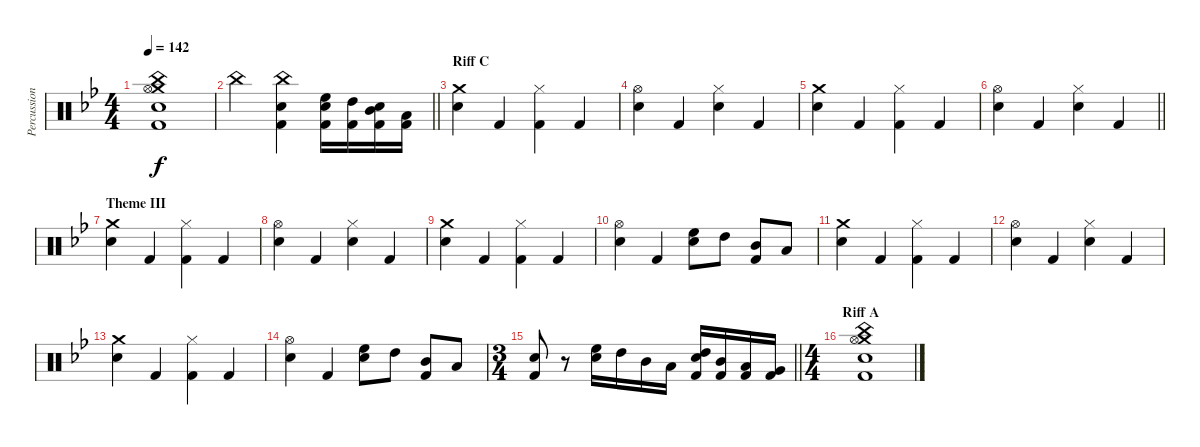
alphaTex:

\track ("Percussion" "Percussion") {instrument percussion}
\staff {score}
\articulation defaults
\ts (4 4)
\tempo 142
\clef neutral
\ks gminor
("Crash medium (hit)" "China (hit)" "Hi-Hat (open)" "Snare (hit) 2" "Kick (hit) 2").1{dy f} |
\barLineRight lightlight "China (hit)".2
("China (hit)" "Snare (hit) 2" "Kick (hit) 2").4 ("High Floor Tom (hit)" "Snare (hit) 2" "Kick (hit) 2").16 ("High Tom (hit)" "Kick (hit) 2").16 ("Mid Tom (hit)" "Snare (hit) 2" "Kick (hit) 2").16 ("Low Tom (hit)" "Kick (hit) 2").16 |
\section ("" "Riff C")
("Crash medium (hit)" "Snare (hit) 2").4 "Kick (hit) 2".4 ("Hi-Hat (closed)" "Kick (hit) 2").4 "Kick (hit) 2".4 |
("Hi-Hat (open)" "Snare (hit) 2").4 "Kick (hit) 2".4 ("Hi-Hat (closed)" "Snare (hit) 2").4 "Kick (hit) 2".4 |
("Crash medium (hit)" "Snare (hit) 2").4 "Kick (hit) 2".4 ("Hi-Hat (closed)" "Kick (hit) 2").4 "Kick (hit) 2".4 |
\barLineRight lightlight
("Hi-Hat (open)" "Snare (hit) 2").4 "Kick (hit) 2".4 ("Hi-Hat (closed)" "Snare (hit) 2").4 "Kick (hit) 2".4 |
\section ("" "Theme III")
("Crash medium (hit)" "Snare (hit) 2").4 "Kick (hit) 2".4 ("Hi-Hat (closed)" "Kick (hit) 2").4 "Kick (hit) 2".4 |
("Hi-Hat (open)" "Snare (hit) 2").4 "Kick (hit) 2".4 ("Hi-Hat (closed)" "Snare (hit) 2").4 "Kick (hit) 2".4 |
("Crash medium (hit)" "Snare (hit) 2").4 "Kick (hit) 2".4 ("Hi-Hat (closed)" "Kick (hit) 2").4 "Kick (hit) 2".4 |
("Hi-Hat (open)" "Snare (hit) 2").4 "Kick (hit) 2".4 ("High Floor Tom (hit)" "Snare (hit) 2").8 "High Tom (hit)".8 ("Mid Tom (hit)" "Kick (hit) 2").8 "Low Tom (hit)".8 |
("Crash medium (hit)" "Snare (hit) 2").4 "Kick (hit) 2".4 ("Hi-Hat (closed)" "Kick (hit) 2").4 "Kick (hit) 2".4 |
("Hi-Hat (open)" "Snare (hit) 2").4 "Kick (hit) 2".4 ("Hi-Hat (closed)" "Snare (hit) 2").4 "Kick (hit) 2".4 |
("Crash medium (hit)" "Snare (hit) 2").4 "Kick (hit) 2".4 ("Hi-Hat (closed)" "Kick (hit) 2").4 "Kick (hit) 2".4 |
("Hi-Hat (open)" "Snare (hit) 2").4 "Kick (hit) 2".4 ("High Floor Tom (hit)" "Snare (hit) 2").8 "High Tom (hit)".8 ("Mid Tom (hit)" "Kick (hit) 2").8 "Low Tom (hit)".8 |
\ts (3 4)
\barLineRight lightlight
("Snare (hit) 2" "Kick (hit) 2").8 r.8 ("High Floor Tom (hit)" "Snare (hit) 2").16 "High Tom (hit)".16 "Mid Tom (hit)".16 "Low Tom (hit)".16 ("High Tom (hit)" "Snare (hit) 2" "Kick (hit) 2").16 ("Mid Tom (hit)" "Kick (hit) 2").16 ("Low Tom (hit)" "Kick (hit) 2").16 ("Very Low Tom (hit)" "Kick (hit) 2").16 |
\ts (4 4)
\section ("" "Riff A")
("Crash medium (hit)" "China (hit)" "Hi-Hat (open)" "Snare (hit) 2" "Kick (hit) 2").1
